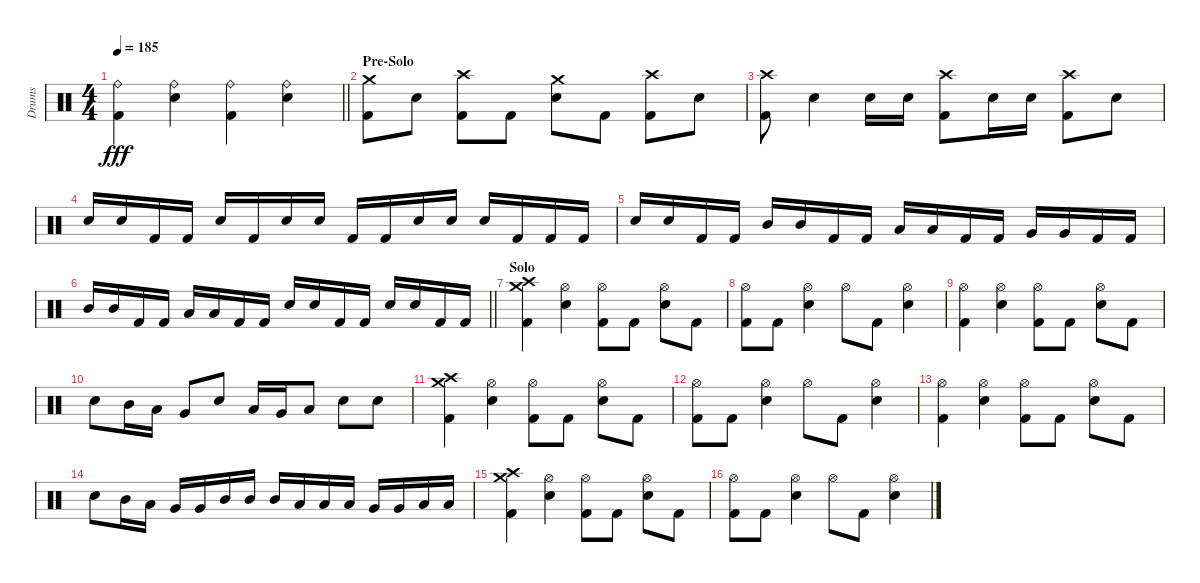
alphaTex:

\track ("Drums" "Drums") {instrument percussion}
\staff {score}
\articulation defaults
\ts (4 4)
\tempo 185
\clef neutral
\barLineRight lightlight
\ks c
("Ride (bell)" "Kick (hit) 2").4{dy fff} ("Ride (bell)" "Electric Snare (hit)").4 ("Ride (bell)" "Kick (hit) 2").4 ("Ride (bell)" "Electric Snare (hit)").4 |
\section ("" "Pre-Solo")
("Crash medium (hit)" "Kick (hit) 2").8 "Electric Snare (hit)".8 ("Crash high (hit)" "Kick (hit) 2").8 "Kick (hit) 2".8 ("Crash medium (hit)" "Electric Snare (hit)").8 "Kick (hit) 2".8 ("Crash high (hit)" "Kick (hit) 2").8 "Electric Snare (hit)".8 |
("Crash high (hit)" "Kick (hit) 2").8 "Electric Snare (hit)".4 "Electric Snare (hit)".16 "Electric Snare (hit)".16 ("Crash high (hit)" "Kick (hit) 2").8 "Electric Snare (hit)".16 "Electric Snare (hit)".16 ("Crash high (hit)" "Kick (hit) 2").8 "Electric Snare (hit)".8 |
"Electric Snare (hit)".16 "Electric Snare (hit)".16 "Kick (hit) 2".16 "Kick (hit) 2".16 "Electric Snare (hit)".16 "Kick (hit) 2".16 "Electric Snare (hit)".16 "Electric Snare (hit)".16 "Kick (hit) 2".16 "Kick (hit) 2".16 "Electric Snare (hit)".16 "Electric Snare (hit)".16 "Electric Snare (hit)".16 "Kick (hit) 2".16 "Kick (hit) 2".16 "Kick (hit) 2".16 |
"Electric Snare (hit)".16 "Electric Snare (hit)".16 "Kick (hit) 2".16 "Kick (hit) 2".16 "Mid Tom (hit)".16 "Mid Tom (hit)".16 "Kick (hit) 2".16 "Kick (hit) 2".16 "Low Tom (hit)".16 "Low Tom (hit)".16 "Kick (hit) 2".16 "Kick (hit) 2".16 "Very Low Tom (hit)".16 "Very Low Tom (hit)".16 "Kick (hit) 2".16 "Kick (hit) 2".16 |
\barLineRight lightlight "Mid Tom (hit)".16 "Mid Tom (hit)".16 "Kick (hit) 2".16 "Kick (hit) 2".16 "Low Tom (hit)".16 "Low Tom (hit)".16 "Kick (hit) 2".16 "Kick (hit) 2".16 "Electric Snare (hit)".16 "Electric Snare (hit)".16 "Kick (hit) 2".16 "Kick (hit) 2".16 "Electric Snare (hit)".16 "Electric Snare (hit)".16 "Kick (hit) 2".16 "Kick (hit) 2".16
|
\section ("" "Solo")
("Crash high (hit)" "Crash medium (hit)" "Kick (hit) 2").4 ("Hi-Hat (open)" "Electric Snare (hit)").4 ("Hi-Hat (open)" "Kick (hit) 2").8 "Kick (hit) 2".8 ("Hi-Hat (open)" "Electric Snare (hit)").8 "Kick (hit) 2".8 |
("Hi-Hat (open)" "Kick (hit) 2").8 "Kick (hit) 2".8 ("Hi-Hat (open)" "Electric Snare (hit)").4 "Hi-Hat (open)".8 "Kick (hit) 2".8 ("Hi-Hat (open)" "Electric Snare (hit)").4 |
("Hi-Hat (open)" "Kick (hit) 2").4 ("Hi-Hat (open)" "Electric Snare (hit)").4 ("Hi-Hat (open)" "Kick (hit) 2").8 "Kick (hit) 2".8 ("Hi-Hat (open)" "Electric Snare (hit)").8 "Kick (hit) 2".8 |
"Electric Snare (hit)".8 "Mid Tom (hit)".16 "Low Tom (hit)".16 "Very Low Tom (hit)".8 "Electric Snare (hit)".8 "Low Tom (hit)".16 "Very Low Tom (hit)".16 "Low Floor Tom (hit)".8 "Electric Snare (hit)".8 "Electric Snare (hit)".8 |
("Crash high (hit)" "Crash medium (hit)" "Kick (hit) 2").4 ("Hi-Hat (open)" "Electric Snare (hit)").4 ("Hi-Hat (open)" "Kick (hit) 2").8 "Kick (hit) 2".8 ("Hi-Hat (open)" "Electric Snare (hit)").8 "Kick (hit) 2".8 |
("Hi-Hat (open)" "Kick (hit) 2").8 "Kick (hit) 2".8 ("Hi-Hat (open)" "Electric Snare (hit)").4 "Hi-Hat (open)".8 "Kick (hit) 2".8 ("Hi-Hat (open)" "Electric Snare (hit)").4 |
("Hi-Hat (open)" "Kick (hit) 2").4 ("Hi-Hat (open)" "Electric Snare (hit)").4 ("Hi-Hat (open)" "Kick (hit) 2").8 "Kick (hit) 2".8 ("Hi-Hat (open)" "Electric Snare (hit)").8 "Kick (hit) 2".8 |
"Electric Snare (hit)".8 "Mid Tom (hit)".16 "Low Tom (hit)".16 "Very Low Tom (hit)".16 "Very Low Tom (hit)".16 "Mid Tom (hit)".16 "Mid Tom (hit)".16 "Mid Tom (hit)".16 "Low Tom (hit)".16 "Low Tom (hit)".16 "Low Tom (hit)".16 "Very Low Tom (hit)".16 "Very Low Tom (hit)".16 "Low Floor Tom (hit)".16 "Low Floor Tom (hit)".16 |
("Crash high (hit)" "Crash medium (hit)" "Kick (hit) 2").4 ("Hi-Hat (open)" "Electric Snare (hit)").4 ("Hi-Hat (open)" "Kick (hit) 2").8 "Kick (hit) 2".8 ("Hi-Hat (open)" "Electric Snare (hit)").8 "Kick (hit) 2".8 |
("Hi-Hat (open)" "Kick (hit) 2").8 "Kick (hit) 2".8 ("Hi-Hat (open)" "Electric Snare (hit)").4 "Hi-Hat (open)".8 "Kick (hit) 2".8 ("Hi-Hat (open)" "Electric Snare (hit)").4
